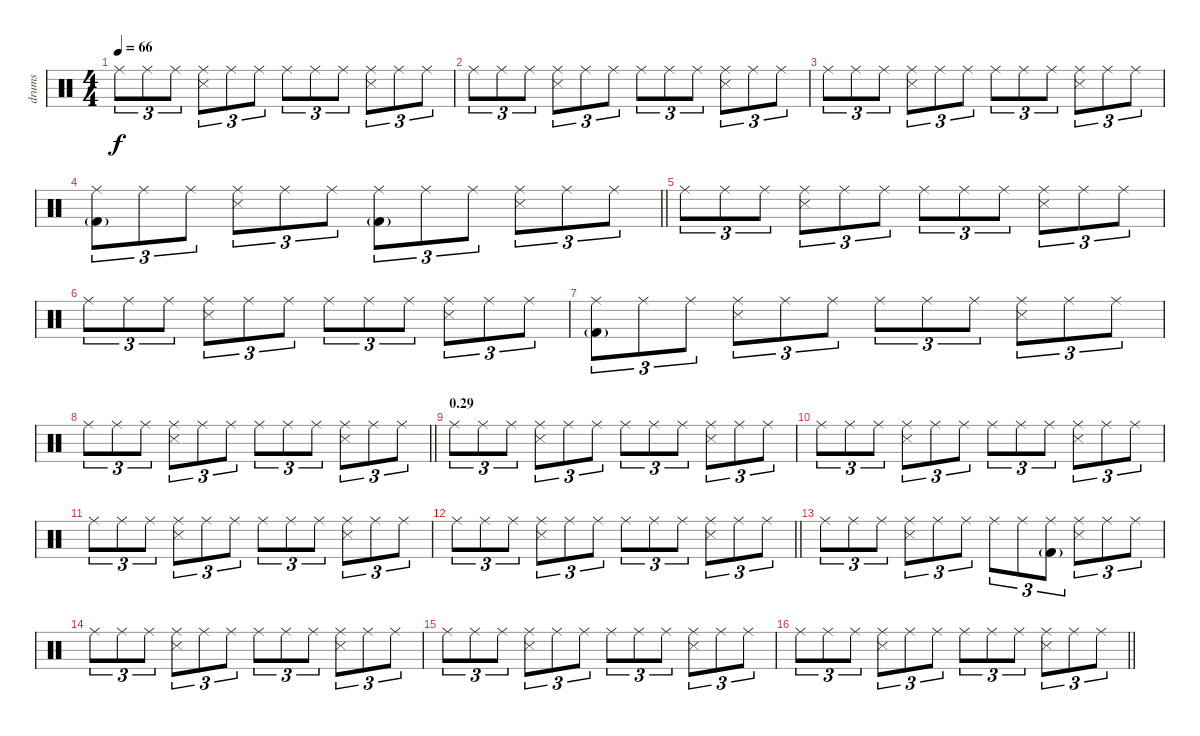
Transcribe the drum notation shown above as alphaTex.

\track ("drums" "drums") {instrument percussion}
\staff {score}
\articulation defaults
\ts (4 4)
\tempo 66
\clef neutral
\ks c "Ride (middle)".8{tu (3 2) dy f} "Ride (middle)".8{tu (3 2)} "Ride (middle)".8{tu (3 2)}
("Ride (middle)" "Snare (side stick) 3").8{tu (3 2)} "Ride (middle)".8{tu (3 2)} "Ride (middle)".8{tu (3 2)} "Ride (middle)".8{tu (3 2)} "Ride (middle)".8{tu (3 2)} "Ride (middle)".8{tu (3 2)} ("Ride (middle)" "Snare (side stick) 3").8{tu (3 2)} "Ride (middle)".8{tu (3 2)} "Ride (middle)".8{tu (3 2)} |
"Ride (middle)".8{tu (3 2)} "Ride (middle)".8{tu (3 2)} "Ride (middle)".8{tu (3 2)} ("Ride (middle)" "Snare (side stick) 3").8{tu (3 2)} "Ride (middle)".8{tu (3 2)} "Ride (middle)".8{tu (3 2)} "Ride (middle)".8{tu (3 2)} "Ride (middle)".8{tu (3 2)} "Ride (middle)".8{tu (3 2)} ("Ride (middle)" "Snare (side stick) 3").8{tu (3 2)} "Ride (middle)".8{tu (3 2)} "Ride (middle)".8{tu (3 2)} |
"Ride (middle)".8{tu (3 2)} "Ride (middle)".8{tu (3 2)} "Ride (middle)".8{tu (3 2)} ("Ride (middle)" "Snare (side stick) 3").8{tu (3 2)} "Ride (middle)".8{tu (3 2)} "Ride (middle)".8{tu (3 2)} "Ride (middle)".8{tu (3 2)} "Ride (middle)".8{tu (3 2)} "Ride (middle)".8{tu (3 2)} ("Ride (middle)" "Snare (side stick) 3").8{tu (3 2)} "Ride (middle)".8{tu (3 2)} "Ride (middle)".8{tu (3 2)} |
\barLineRight lightlight
("Ride (middle)" "Kick (hit) 2"{g}).8{tu (3 2)} "Ride (middle)".8{tu (3 2)} "Ride (middle)".8{tu (3 2)} ("Ride (middle)" "Snare (side stick) 3").8{tu (3 2)} "Ride (middle)".8{tu (3 2)} "Ride (middle)".8{tu (3 2)} ("Ride (middle)" "Kick (hit) 2"{g}).8{tu (3 2)} "Ride (middle)".8{tu (3 2)} "Ride (middle)".8{tu (3 2)} ("Ride (middle)" "Snare (side stick) 3").8{tu (3 2)} "Ride (middle)".8{tu (3 2)} "Ride (middle)".8{tu (3 2)} |
"Ride (middle)".8{tu (3 2)} "Ride (middle)".8{tu (3 2)} "Ride (middle)".8{tu (3 2)} ("Ride (middle)" "Snare (side stick) 3").8{tu (3 2)} "Ride (middle)".8{tu (3 2)} "Ride (middle)".8{tu (3 2)} "Ride (middle)".8{tu (3 2)} "Ride (middle)".8{tu (3 2)} "Ride (middle)".8{tu (3 2)} ("Ride (middle)" "Snare (side stick) 3").8{tu (3 2)} "Ride (middle)".8{tu (3 2)} "Ride (middle)".8{tu (3 2)} |
"Ride (middle)".8{tu (3 2)} "Ride (middle)".8{tu (3 2)} "Ride (middle)".8{tu (3 2)} ("Ride (middle)" "Snare (side stick) 3").8{tu (3 2)} "Ride (middle)".8{tu (3 2)} "Ride (middle)".8{tu (3 2)} "Ride (middle)".8{tu (3 2)} "Ride (middle)".8{tu (3 2)} "Ride (middle)".8{tu (3 2)} ("Ride (middle)" "Snare (side stick) 3").8{tu (3 2)} "Ride (middle)".8{tu (3 2)} "Ride (middle)".8{tu (3 2)} |
("Ride (middle)" "Kick (hit) 2"{g}).8{tu (3 2)} "Ride (middle)".8{tu (3 2)} "Ride (middle)".8{tu (3 2)} ("Ride (middle)" "Snare (side stick) 3").8{tu (3 2)} "Ride (middle)".8{tu (3 2)} "Ride (middle)".8{tu (3 2)} "Ride (middle)".8{tu (3 2)} "Ride (middle)".8{tu (3 2)} "Ride (middle)".8{tu (3 2)} ("Ride (middle)" "Snare (side stick) 3").8{tu (3 2)} "Ride (middle)".8{tu (3 2)} "Ride (middle)".8{tu (3 2)} |
\barLineRight lightlight "Ride (middle)".8{tu (3 2)} "Ride (middle)".8{tu (3 2)} "Ride (middle)".8{tu (3 2)}
("Ride (middle)" "Snare (side stick) 3").8{tu (3 2)} "Ride (middle)".8{tu (3 2)} "Ride (middle)".8{tu (3 2)} "Ride (middle)".8{tu (3 2)} "Ride (middle)".8{tu (3 2)} "Ride (middle)".8{tu (3 2)} ("Ride (middle)" "Snare (side stick) 3").8{tu (3 2)} "Ride (middle)".8{tu (3 2)} "Ride (middle)".8{tu (3 2)} |
\section ("" "0.29")
"Ride (middle)".8{tu (3 2)} "Ride (middle)".8{tu (3 2)} "Ride (middle)".8{tu (3 2)} ("Ride (middle)" "Snare (side stick) 3").8{tu (3 2)} "Ride (middle)".8{tu (3 2)} "Ride (middle)".8{tu (3 2)} "Ride (middle)".8{tu (3 2)} "Ride (middle)".8{tu (3 2)} "Ride (middle)".8{tu (3 2)} ("Ride (middle)" "Snare (side stick) 3").8{tu (3 2)} "Ride (middle)".8{tu (3 2)} "Ride (middle)".8{tu (3 2)} |
"Ride (middle)".8{tu (3 2)} "Ride (middle)".8{tu (3 2)} "Ride (middle)".8{tu (3 2)} ("Ride (middle)" "Snare (side stick) 3").8{tu (3 2)} "Ride (middle)".8{tu (3 2)} "Ride (middle)".8{tu (3 2)} "Ride (middle)".8{tu (3 2)} "Ride (middle)".8{tu (3 2)} "Ride (middle)".8{tu (3 2)} ("Ride (middle)" "Snare (side stick) 3").8{tu (3 2)} "Ride (middle)".8{tu (3 2)} "Ride (middle)".8{tu (3 2)} |
"Ride (middle)".8{tu (3 2)} "Ride (middle)".8{tu (3 2)} "Ride (middle)".8{tu (3 2)} ("Ride (middle)" "Snare (side stick) 3").8{tu (3 2)} "Ride (middle)".8{tu (3 2)} "Ride (middle)".8{tu (3 2)} "Ride (middle)".8{tu (3 2)} "Ride (middle)".8{tu (3 2)} "Ride (middle)".8{tu (3 2)} ("Ride (middle)" "Snare (side stick) 3").8{tu (3 2)} "Ride (middle)".8{tu (3 2)} "Ride (middle)".8{tu (3 2)} |
\barLineRight lightlight "Ride (middle)".8{tu (3 2)} "Ride (middle)".8{tu (3 2)} "Ride (middle)".8{tu (3 2)}
("Ride (middle)" "Snare (side stick) 3").8{tu (3 2)} "Ride (middle)".8{tu (3 2)} "Ride (middle)".8{tu (3 2)} "Ride (middle)".8{tu (3 2)} "Ride (middle)".8{tu (3 2)} "Ride (middle)".8{tu (3 2)} ("Ride (middle)" "Snare (side stick) 3").8{tu (3 2)} "Ride (middle)".8{tu (3 2)} "Ride (middle)".8{tu (3 2)} |
"Ride (middle)".8{tu (3 2)} "Ride (middle)".8{tu (3 2)} "Ride (middle)".8{tu (3 2)} ("Ride (middle)" "Snare (side stick) 3").8{tu (3 2)} "Ride (middle)".8{tu (3 2)} "Ride (middle)".8{tu (3 2)} "Ride (middle)".8{tu (3 2)} "Ride (middle)".8{tu (3 2)} ("Ride (middle)" "Kick (hit) 2"{g}).8{tu (3 2)} ("Ride (middle)" "Snare (side stick) 3").8{tu (3 2)} "Ride (middle)".8{tu (3 2)} "Ride (middle)".8{tu (3 2)} |
"Ride (middle)".8{tu (3 2)} "Ride (middle)".8{tu (3 2)} "Ride (middle)".8{tu (3 2)} ("Ride (middle)" "Snare (side stick) 3").8{tu (3 2)} "Ride (middle)".8{tu (3 2)} "Ride (middle)".8{tu (3 2)} "Ride (middle)".8{tu (3 2)} "Ride (middle)".8{tu (3 2)} "Ride (middle)".8{tu (3 2)} ("Ride (middle)" "Snare (side stick) 3").8{tu (3 2)} "Ride (middle)".8{tu (3 2)} "Ride (middle)".8{tu (3 2)} |
"Ride (middle)".8{tu (3 2)} "Ride (middle)".8{tu (3 2)} "Ride (middle)".8{tu (3 2)} ("Ride (middle)" "Snare (side stick) 3").8{tu (3 2)} "Ride (middle)".8{tu (3 2)} "Ride (middle)".8{tu (3 2)} "Ride (middle)".8{tu (3 2)} "Ride (middle)".8{tu (3 2)} "Ride (middle)".8{tu (3 2)} ("Ride (middle)" "Snare (side stick) 3").8{tu (3 2)} "Ride (middle)".8{tu (3 2)} "Ride (middle)".8{tu (3 2)} |
\barLineRight lightlight "Ride (middle)".8{tu (3 2)} "Ride (middle)".8{tu (3 2)} "Ride (middle)".8{tu (3 2)}
("Ride (middle)" "Snare (side stick) 3").8{tu (3 2)} "Ride (middle)".8{tu (3 2)} "Ride (middle)".8{tu (3 2)} "Ride (middle)".8{tu (3 2)} "Ride (middle)".8{tu (3 2)} "Ride (middle)".8{tu (3 2)} ("Ride (middle)" "Snare (side stick) 3").8{tu (3 2)} "Ride (middle)".8{tu (3 2)} "Ride (middle)".8{tu (3 2)}
